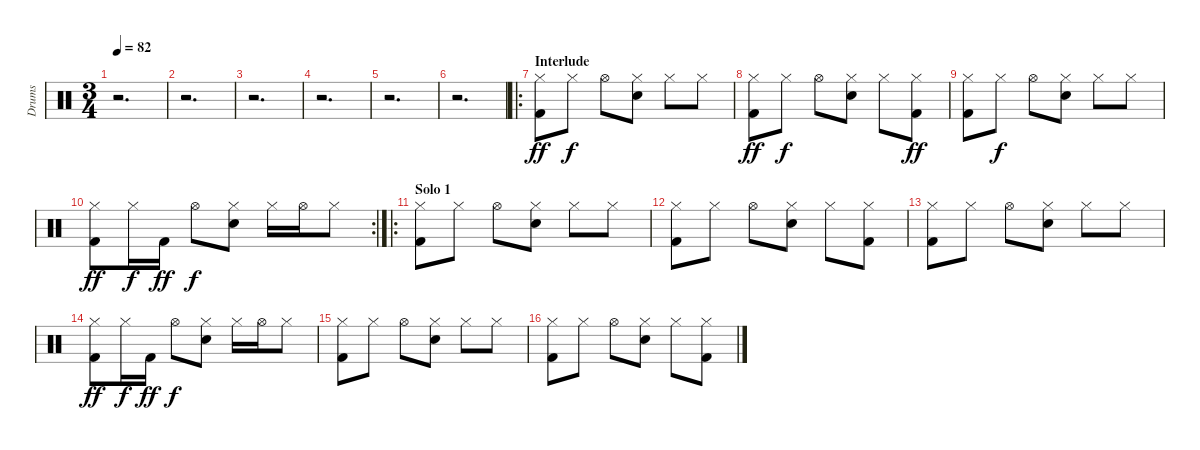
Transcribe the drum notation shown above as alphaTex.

\track ("Drums" "Drums") {instrument percussion}
\staff {score}
\articulation defaults
\ts (3 4)
\tempo 82
\clef neutral
\ks c
r.2{d dy f} |
r.2{d} |
r.2{d} |
r.2{d} |
r.2{d} |
r.2{d} |
\ro
\section ("" "Interlude")
("Hi-Hat (closed)" "Kick (hit) 2").8{dy ff} "Hi-Hat (closed)".8{dy f} "Hi-Hat (open)".8 ("Hi-Hat (closed)" "Electric Snare (hit)").8 "Hi-Hat (closed)".8 "Hi-Hat (closed)".8 |
("Hi-Hat (closed)" "Kick (hit) 2").8{dy ff} "Hi-Hat (closed)".8{dy f} "Hi-Hat (open)".8 ("Hi-Hat (closed)" "Electric Snare (hit)").8 "Hi-Hat (closed)".8 ("Hi-Hat (closed)" "Kick (hit) 2").8{dy ff} |
("Hi-Hat (closed)" "Kick (hit) 2").8 "Hi-Hat (closed)".8{dy f} "Hi-Hat (open)".8 ("Hi-Hat (closed)" "Electric Snare (hit)").8 "Hi-Hat (closed)".8 "Hi-Hat (closed)".8 |
\rc 2
("Hi-Hat (closed)" "Kick (hit) 2").8{dy ff} "Hi-Hat (closed)".16{dy f} "Kick (hit) 2".16{dy ff} "Hi-Hat (open)".8{dy f} ("Hi-Hat (closed)" "Electric Snare (hit)").8 "Hi-Hat (closed)".16 "Hi-Hat (open)".16 "Hi-Hat (closed)".8 |
\ro
\section ("" "Solo 1")
("Hi-Hat (closed)" "Kick (hit) 2").8 "Hi-Hat (closed)".8 "Hi-Hat (open)".8 ("Hi-Hat (closed)" "Electric Snare (hit)").8 "Hi-Hat (closed)".8 "Hi-Hat (closed)".8 |
("Hi-Hat (closed)" "Kick (hit) 2").8 "Hi-Hat (closed)".8 "Hi-Hat (open)".8 ("Hi-Hat (closed)" "Electric Snare (hit)").8 "Hi-Hat (closed)".8 ("Hi-Hat (closed)" "Kick (hit) 2").8 |
("Hi-Hat (closed)" "Kick (hit) 2").8 "Hi-Hat (closed)".8 "Hi-Hat (open)".8 ("Hi-Hat (closed)" "Electric Snare (hit)").8 "Hi-Hat (closed)".8 "Hi-Hat (closed)".8 |
("Hi-Hat (closed)" "Kick (hit) 2").8{dy ff} "Hi-Hat (closed)".16{dy f} "Kick (hit) 2".16{dy ff} "Hi-Hat (open)".8{dy f} ("Hi-Hat (closed)" "Electric Snare (hit)").8 "Hi-Hat (closed)".16 "Hi-Hat (open)".16 "Hi-Hat (closed)".8 |
("Hi-Hat (closed)" "Kick (hit) 2").8 "Hi-Hat (closed)".8 "Hi-Hat (open)".8 ("Hi-Hat (closed)" "Electric Snare (hit)").8 "Hi-Hat (closed)".8 "Hi-Hat (closed)".8 |
("Hi-Hat (closed)" "Kick (hit) 2").8 "Hi-Hat (closed)".8 "Hi-Hat (open)".8 ("Hi-Hat (closed)" "Electric Snare (hit)").8 "Hi-Hat (closed)".8 ("Hi-Hat (closed)" "Kick (hit) 2").8
